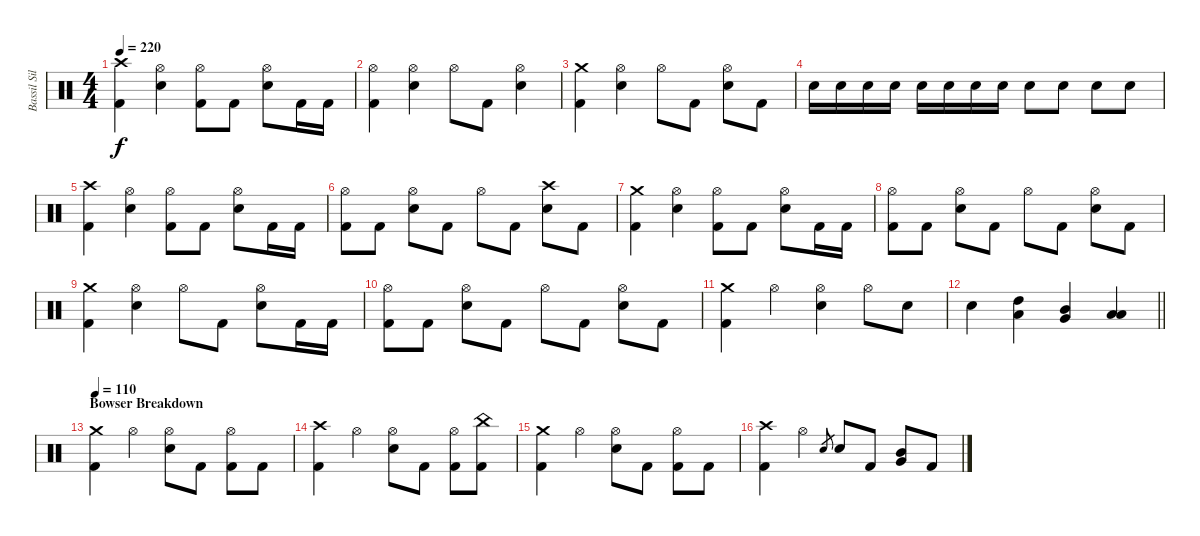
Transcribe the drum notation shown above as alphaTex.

\track ("Bassil Silver-Hajo" "Bassil Sil") {instrument percussion}
\staff {score}
\articulation defaults
\ts (4 4)
\tempo 220
\clef neutral
\ks c
("Crash high (hit)" "Kick (hit) 2").4{dy f} ("Hi-Hat (open)" "Snare (hit) 2").4 ("Hi-Hat (open)" "Kick (hit) 2").8 "Kick (hit) 2".8 ("Hi-Hat (open)" "Snare (hit) 2").8 "Kick (hit) 2".16 "Kick (hit) 2".16 |
("Hi-Hat (open)" "Kick (hit) 2").4 ("Hi-Hat (open)" "Snare (hit) 2").4 "Hi-Hat (open)".8 "Kick (hit) 2".8 ("Hi-Hat (open)" "Snare (hit) 2").4 |
("Crash medium (hit)" "Kick (hit) 2").4 ("Hi-Hat (open)" "Snare (hit) 2").4 "Hi-Hat (open)".8 "Kick (hit) 2".8 ("Hi-Hat (open)" "Snare (hit) 2").8 "Kick (hit) 2".8 |
"Snare (hit) 2".16 "Snare (hit) 2".16 "Snare (hit) 2".16 "Snare (hit) 2".16 "Snare (hit) 2".16 "Snare (hit) 2".16 "Snare (hit) 2".16 "Snare (hit) 2".16 "Snare (hit) 2".8 "Snare (hit) 2".8 "Snare (hit) 2".8 "Snare (hit) 2".8 |
("Crash high (hit)" "Kick (hit) 2").4 ("Hi-Hat (open)" "Snare (hit) 2").4 ("Hi-Hat (open)" "Kick (hit) 2").8 "Kick (hit) 2".8 ("Hi-Hat (open)" "Snare (hit) 2").8 "Kick (hit) 2".16 "Kick (hit) 2".16 |
("Hi-Hat (open)" "Kick (hit) 2").8 "Kick (hit) 2".8 ("Hi-Hat (open)" "Snare (hit) 2").8 "Kick (hit) 2".8 "Hi-Hat (open)".8 "Kick (hit) 2".8 ("Crash high (hit)" "Snare (hit) 2").8 "Kick (hit) 2".8 |
("Crash medium (hit)" "Kick (hit) 2").4 ("Hi-Hat (open)" "Snare (hit) 2").4 ("Hi-Hat (open)" "Kick (hit) 2").8 "Kick (hit) 2".8 ("Hi-Hat (open)" "Snare (hit) 2").8 "Kick (hit) 2".16 "Kick (hit) 2".16 |
("Hi-Hat (open)" "Kick (hit) 2").8 "Kick (hit) 2".8 ("Hi-Hat (open)" "Snare (hit) 2").8 "Kick (hit) 2".8 "Hi-Hat (open)".8 "Kick (hit) 2".8 ("Hi-Hat (open)" "Snare (hit) 2").8 "Kick (hit) 2".8 |
("Crash medium (hit)" "Kick (hit) 2").4 ("Hi-Hat (open)" "Snare (hit) 2").4 "Hi-Hat (open)".8 "Kick (hit) 2".8 ("Hi-Hat (open)" "Snare (hit) 2").8 "Kick (hit) 2".16 "Kick (hit) 2".16 |
("Hi-Hat (open)" "Kick (hit) 2").8 "Kick (hit) 2".8 ("Hi-Hat (open)" "Snare (hit) 2").8 "Kick (hit) 2".8 "Hi-Hat (open)".8 "Kick (hit) 2".8 ("Hi-Hat (open)" "Snare (hit) 2").8 "Kick (hit) 2".8 |
("Crash medium (hit)" "Kick (hit) 2").4 "Hi-Hat (open)".4 ("Hi-Hat (open)" "Snare (hit) 2").4 "Hi-Hat (open)".8 "Snare (hit) 2".8 |
\barLineRight lightlight "Snare (hit) 2".4
("High Tom (hit)" "Low Tom (hit)").4 ("Mid Tom (hit)" "Very Low Tom (hit)").4 ("Low Tom (hit)" "Low Floor Tom (hit)").4 |
\section ("" "Bowser Breakdown")
\tempo 110
("Crash medium (hit)" "Kick (hit) 2").4 "Hi-Hat (open)".4 ("Hi-Hat (open)" "Snare (hit) 2").8 "Kick (hit) 2".8 ("Hi-Hat (open)" "Kick (hit) 2").8 "Kick (hit) 2".8 |
("Crash high (hit)" "Kick (hit) 2").4 "Hi-Hat (open)".4 ("Hi-Hat (open)" "Snare (hit) 2").8 "Kick (hit) 2".8 ("Hi-Hat (open)" "Kick (hit) 2").8 ("China (hit)" "Kick (hit) 2").8 |
("Crash medium (hit)" "Kick (hit) 2").4 "Hi-Hat (open)".4 ("Hi-Hat (open)" "Snare (hit) 2").8 "Kick (hit) 2".8 ("Hi-Hat (open)" "Kick (hit) 2").8 "Kick (hit) 2".8 |
("Crash high (hit)" "Kick (hit) 2").4 "Hi-Hat (open)".4 "Snare (hit) 2".8{gr} "Snare (hit) 2".8 "Kick (hit) 2".8 ("Mid Tom (hit)" "Very Low Tom (hit)").8 "Kick (hit) 2".8
